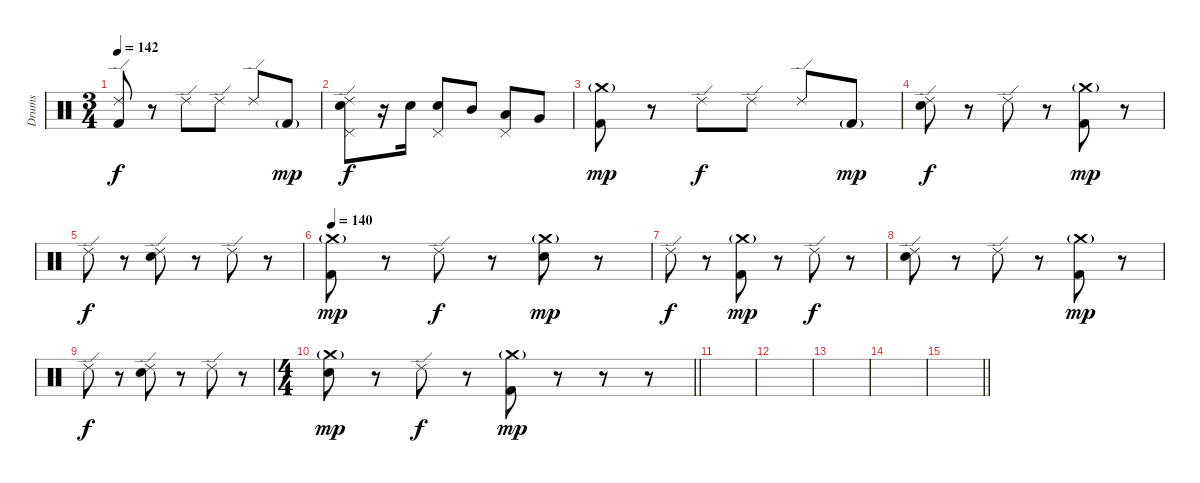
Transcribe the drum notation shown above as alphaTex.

\track ("Drums" "Drums") {instrument percussion}
\staff {score}
\articulation defaults
\ts (3 4)
\tempo 142
\clef neutral
\ks c
("Ride (edge) 2" "Kick (hit) 2").8{dy f} r.8 "Ride (edge) 2".8 "Ride (edge) 2".8 "Ride (edge) 2".8 "Kick (hit) 2"{g}.8{dy mp} |
("Pedal Hi-Hat (hit)" "Ride (edge) 2" "Electric Snare (hit)").8{dy f} r.16 "Electric Snare (hit)".16 ("Pedal Hi-Hat (hit)" "Electric Snare (hit)").8 "Mid Tom (hit)".8 ("Pedal Hi-Hat (hit)" "Low Tom (hit)").8 "Very Low Tom (hit)".8 |
("Crash medium (hit)"{g} "Kick (hit) 2").8{dy mp} r.8 "Ride (edge) 2".8{dy f} "Ride (edge) 2".8 "Ride (edge) 2".8 "Kick (hit) 2"{g}.8{dy mp} |
("Ride (edge) 2" "Electric Snare (hit)").8{dy f} r.8 "Ride (edge) 2".8 r.8 ("Crash medium (hit)"{g} "Kick (hit) 2").8{dy mp} r.8 |
"Ride (edge) 2".8{dy f} r.8 ("Ride (edge) 2" "Electric Snare (hit)").8 r.8 "Ride (edge) 2".8 r.8 |
\tempo 140
("Crash medium (hit)"{g} "Kick (hit) 2").8{dy mp} r.8 "Ride (edge) 2".8{dy f} r.8 ("Crash medium (hit)"{g} "Electric Snare (hit)").8{dy mp} r.8 |
"Ride (edge) 2".8{dy f} r.8 ("Crash medium (hit)"{g} "Kick (hit) 2").8{dy mp} r.8 "Ride (edge) 2".8{dy f} r.8 |
("Ride (edge) 2" "Electric Snare (hit)").8 r.8 "Ride (edge) 2".8 r.8 ("Crash medium (hit)"{g} "Kick (hit) 2").8{dy mp} r.8 |
"Ride (edge) 2".8{dy f} r.8 ("Ride (edge) 2" "Electric Snare (hit)").8 r.8 "Ride (edge) 2".8 r.8 |
\ts (4 4)
\barLineRight lightlight
("Crash medium (hit)"{g} "Electric Snare (hit)").8{dy mp} r.8 "Ride (edge) 2".8{dy f} r.8 ("Crash medium (hit)"{g} "Kick (hit) 2").8{dy mp} r.8 r.8 r.8 |
|
|
|
|
\barLineRight lightlight
